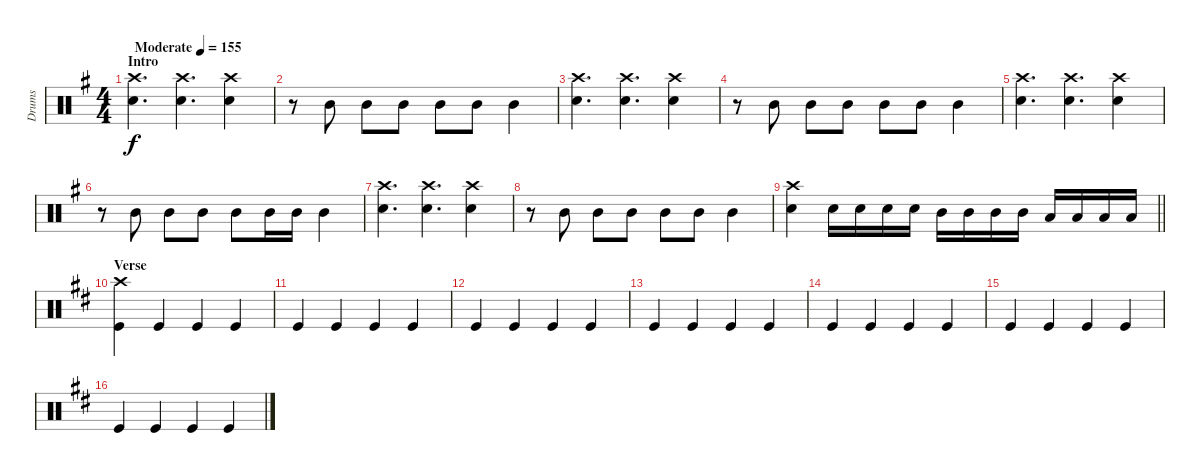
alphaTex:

\track ("Drums" "Drums") {instrument percussion}
\staff {score}
\articulation defaults
\ts (4 4)
\section ("" "Intro")
\tempo (155 "Moderate")
\clef neutral
\ks g
("Crash high (hit)" "Snare (hit) 2").4{d dy f} ("Crash high (hit)" "Snare (hit) 2").4{d} ("Crash high (hit)" "Snare (hit) 2").4 |
r.8 "Mid Tom (hit)".8 "Mid Tom (hit)".8 "Mid Tom (hit)".8 "Mid Tom (hit)".8 "Mid Tom (hit)".8 "Mid Tom (hit)".4 |
("Crash high (hit)" "Snare (hit) 2").4{d} ("Crash high (hit)" "Snare (hit) 2").4{d} ("Crash high (hit)" "Snare (hit) 2").4 |
r.8 "Mid Tom (hit)".8 "Mid Tom (hit)".8 "Mid Tom (hit)".8 "Mid Tom (hit)".8 "Mid Tom (hit)".8 "Mid Tom (hit)".4 |
("Crash high (hit)" "Snare (hit) 2").4{d} ("Crash high (hit)" "Snare (hit) 2").4{d} ("Crash high (hit)" "Snare (hit) 2").4 |
r.8 "Mid Tom (hit)".8 "Mid Tom (hit)".8 "Mid Tom (hit)".8 "Mid Tom (hit)".8 "Mid Tom (hit)".16 "Mid Tom (hit)".16 "Mid Tom (hit)".4 |
("Crash high (hit)" "Snare (hit) 2").4{d} ("Crash high (hit)" "Snare (hit) 2").4{d} ("Crash high (hit)" "Snare (hit) 2").4 |
r.8 "Mid Tom (hit)".8 "Mid Tom (hit)".8 "Mid Tom (hit)".8 "Mid Tom (hit)".8 "Mid Tom (hit)".8 "Mid Tom (hit)".4 |
\barLineRight lightlight
("Crash high (hit)" "Snare (hit) 2").4 "Snare (hit) 2".16 "Snare (hit) 2".16 "Snare (hit) 2".16 "Snare (hit) 2".16 "Mid Tom (hit)".16 "Mid Tom (hit)".16 "Mid Tom (hit)".16 "Mid Tom (hit)".16 "Low Tom (hit)".16 "Low Tom (hit)".16 "Low Tom (hit)".16 "Low Tom (hit)".16 |
\section ("" "Verse")
\ks d
("Crash high (hit)" "Kick (hit)").4 "Kick (hit)".4 "Kick (hit)".4 "Kick (hit)".4 |
"Kick (hit)".4 "Kick (hit)".4 "Kick (hit)".4 "Kick (hit)".4 |
"Kick (hit)".4 "Kick (hit)".4 "Kick (hit)".4 "Kick (hit)".4 |
"Kick (hit)".4 "Kick (hit)".4 "Kick (hit)".4 "Kick (hit)".4 |
"Kick (hit)".4 "Kick (hit)".4 "Kick (hit)".4 "Kick (hit)".4 |
"Kick (hit)".4 "Kick (hit)".4 "Kick (hit)".4 "Kick (hit)".4 |
"Kick (hit)".4 "Kick (hit)".4 "Kick (hit)".4 "Kick (hit)".4
